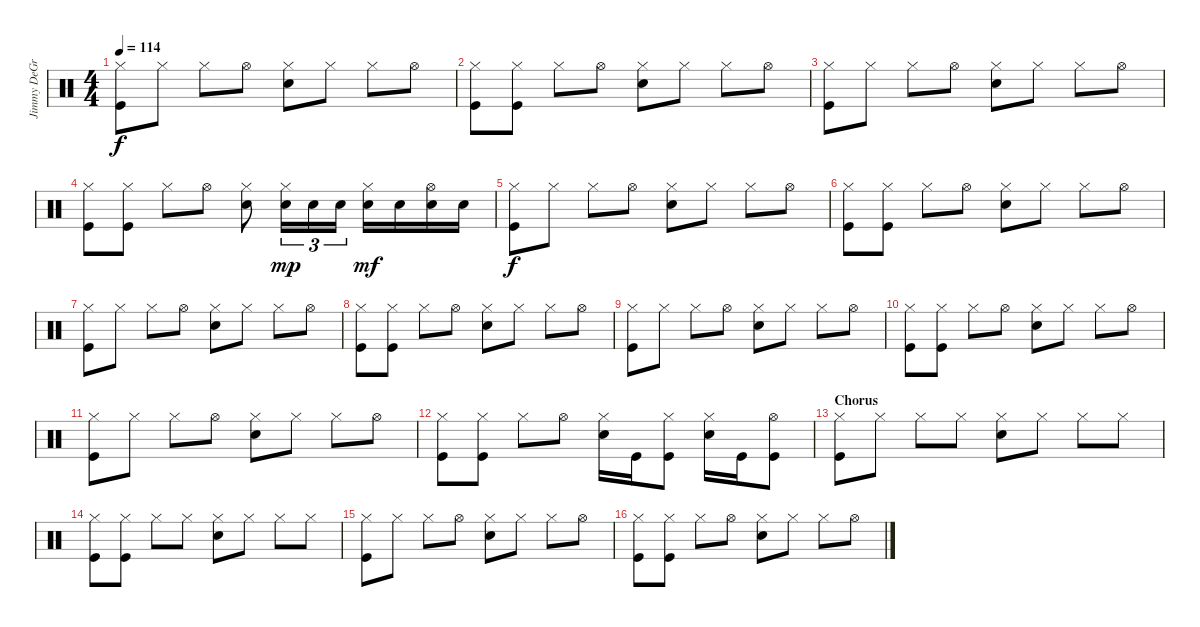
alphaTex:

\track ("Jimmy DeGrasso" "Jimmy DeGr") {instrument percussion}
\staff {score}
\articulation defaults
\ts (4 4)
\tempo 114
\clef neutral
\ks c
("Hi-Hat (closed)" "Kick (hit)").8{dy f} "Hi-Hat (closed)".8 "Hi-Hat (closed)".8 "Hi-Hat (open)".8 ("Hi-Hat (closed)" "Snare (hit) 2").8 "Hi-Hat (closed)".8 "Hi-Hat (closed)".8 "Hi-Hat (open)".8 |
("Hi-Hat (closed)" "Kick (hit)").8 ("Hi-Hat (closed)" "Kick (hit)").8 "Hi-Hat (closed)".8 "Hi-Hat (open)".8 ("Hi-Hat (closed)" "Snare (hit) 2").8 "Hi-Hat (closed)".8 "Hi-Hat (closed)".8 "Hi-Hat (open)".8 |
("Hi-Hat (closed)" "Kick (hit)").8 "Hi-Hat (closed)".8 "Hi-Hat (closed)".8 "Hi-Hat (open)".8 ("Hi-Hat (closed)" "Snare (hit) 2").8 "Hi-Hat (closed)".8 "Hi-Hat (closed)".8 "Hi-Hat (open)".8 |
("Hi-Hat (closed)" "Kick (hit)").8 ("Hi-Hat (closed)" "Kick (hit)").8 "Hi-Hat (closed)".8 "Hi-Hat (open)".8 ("Hi-Hat (closed)" "Snare (hit) 2").8 ("Hi-Hat (closed)" "Snare (hit) 2").16{tu (3 2) dy mp} "Snare (hit) 2".16{tu (3 2)} "Snare (hit) 2".16{tu (3 2)} ("Hi-Hat (closed)" "Snare (hit) 2").16{dy mf} "Snare (hit) 2".16 ("Hi-Hat (open)" "Snare (hit) 2").16 "Snare (hit) 2".16 |
("Hi-Hat (closed)" "Kick (hit)").8{dy f} "Hi-Hat (closed)".8 "Hi-Hat (closed)".8 "Hi-Hat (open)".8 ("Hi-Hat (closed)" "Snare (hit) 2").8 "Hi-Hat (closed)".8 "Hi-Hat (closed)".8 "Hi-Hat (open)".8 |
("Hi-Hat (closed)" "Kick (hit)").8 ("Hi-Hat (closed)" "Kick (hit)").8 "Hi-Hat (closed)".8 "Hi-Hat (open)".8 ("Hi-Hat (closed)" "Snare (hit) 2").8 "Hi-Hat (closed)".8 "Hi-Hat (closed)".8 "Hi-Hat (open)".8 |
("Hi-Hat (closed)" "Kick (hit)").8 "Hi-Hat (closed)".8 "Hi-Hat (closed)".8 "Hi-Hat (open)".8 ("Hi-Hat (closed)" "Snare (hit) 2").8 "Hi-Hat (closed)".8 "Hi-Hat (closed)".8 "Hi-Hat (open)".8 |
("Hi-Hat (closed)" "Kick (hit)").8 ("Hi-Hat (closed)" "Kick (hit)").8 "Hi-Hat (closed)".8 "Hi-Hat (open)".8 ("Hi-Hat (closed)" "Snare (hit) 2").8 "Hi-Hat (closed)".8 "Hi-Hat (closed)".8 "Hi-Hat (open)".8 |
("Hi-Hat (closed)" "Kick (hit)").8 "Hi-Hat (closed)".8 "Hi-Hat (closed)".8 "Hi-Hat (open)".8 ("Hi-Hat (closed)" "Snare (hit) 2").8 "Hi-Hat (closed)".8 "Hi-Hat (closed)".8 "Hi-Hat (open)".8 |
("Hi-Hat (closed)" "Kick (hit)").8 ("Hi-Hat (closed)" "Kick (hit)").8 "Hi-Hat (closed)".8 "Hi-Hat (open)".8 ("Hi-Hat (closed)" "Snare (hit) 2").8 "Hi-Hat (closed)".8 "Hi-Hat (closed)".8 "Hi-Hat (open)".8 |
("Hi-Hat (closed)" "Kick (hit)").8 "Hi-Hat (closed)".8 "Hi-Hat (closed)".8 "Hi-Hat (open)".8 ("Hi-Hat (closed)" "Snare (hit) 2").8 "Hi-Hat (closed)".8 "Hi-Hat (closed)".8 "Hi-Hat (open)".8 |
("Hi-Hat (closed)" "Kick (hit)").8 ("Hi-Hat (closed)" "Kick (hit)").8 "Hi-Hat (closed)".8 "Hi-Hat (open)".8 ("Hi-Hat (closed)" "Snare (hit) 2").16 "Kick (hit)".16 ("Hi-Hat (closed)" "Kick (hit)").8 ("Hi-Hat (closed)" "Snare (hit) 2").16 "Kick (hit)".16 ("Hi-Hat (open)" "Kick (hit)").8 |
\section ("" "Chorus")
("Hi-Hat (closed)" "Kick (hit)").8{volume 12} "Hi-Hat (closed)".8 "Hi-Hat (closed)".8 "Hi-Hat (closed)".8 ("Hi-Hat (closed)" "Snare (hit) 2").8 "Hi-Hat (closed)".8 "Hi-Hat (closed)".8 "Hi-Hat (closed)".8 |
("Hi-Hat (closed)" "Kick (hit)").8 ("Hi-Hat (closed)" "Kick (hit)").8 "Hi-Hat (closed)".8 "Hi-Hat (closed)".8 ("Hi-Hat (closed)" "Snare (hit) 2").8 "Hi-Hat (closed)".8 "Hi-Hat (closed)".8 "Hi-Hat (closed)".8 |
("Hi-Hat (closed)" "Kick (hit)").8 "Hi-Hat (closed)".8 "Hi-Hat (closed)".8 "Hi-Hat (open)".8 ("Hi-Hat (closed)" "Snare (hit) 2").8 "Hi-Hat (closed)".8 "Hi-Hat (closed)".8 "Hi-Hat (open)".8 |
("Hi-Hat (closed)" "Kick (hit)").8 ("Hi-Hat (closed)" "Kick (hit)").8 "Hi-Hat (closed)".8 "Hi-Hat (open)".8 ("Hi-Hat (closed)" "Snare (hit) 2").8 "Hi-Hat (closed)".8 "Hi-Hat (closed)".8 "Hi-Hat (open)".8
